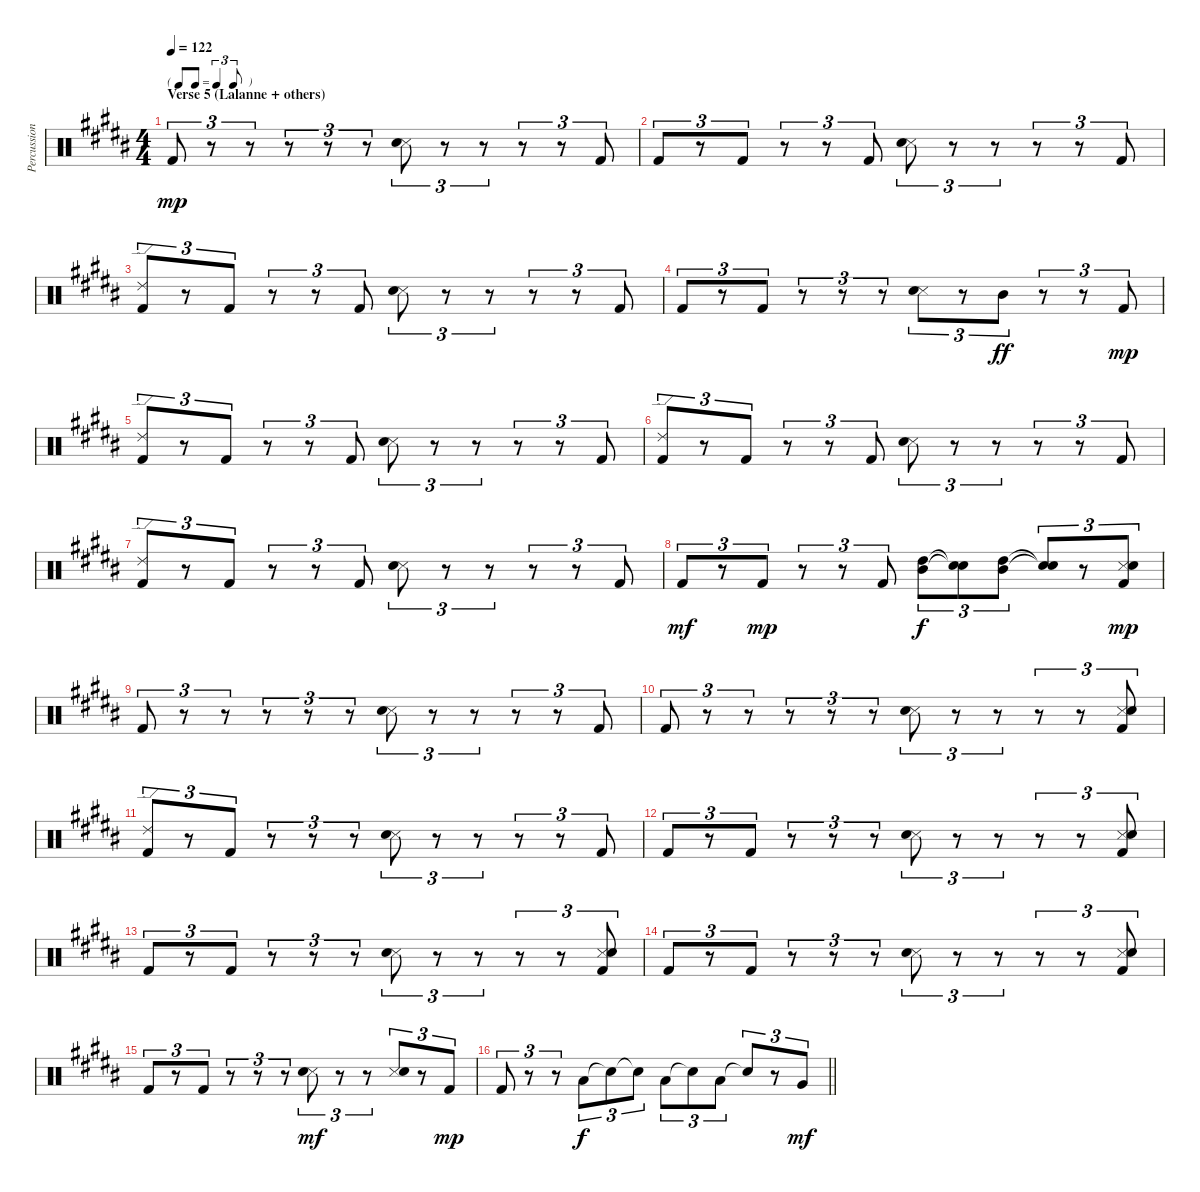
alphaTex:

\track ("Percussion" "Percussion") {instrument percussion}
\staff {score}
\articulation defaults
\ts (4 4)
\tf triplet8th
\section ("" "Verse 5 (Lalanne + others)")
\tempo 122
\clef neutral
\ks g#minor "Kick (hit) 2".8{tu (3 2) dy mp}
r.8{tu (3 2)} r.8{tu (3 2)} r.8{tu (3 2)} r.8{tu (3 2)} r.8{tu (3 2)} ("Snare (side stick) 3" "Snare (hit) 2").8{tu (3 2)} r.8{tu (3 2)} r.8{tu (3 2)} r.8{tu (3 2)} r.8{tu (3 2)} "Kick (hit) 2".8{tu (3 2)} |
"Kick (hit) 2".8{tu (3 2)} r.8{tu (3 2)} "Kick (hit) 2".8{tu (3 2)} r.8{tu (3 2)} r.8{tu (3 2)} "Kick (hit) 2".8{tu (3 2)} ("Snare (side stick) 3" "Snare (hit) 2").8{tu (3 2)} r.8{tu (3 2)} r.8{tu (3 2)} r.8{tu (3 2)} r.8{tu (3 2)} "Kick (hit) 2".8{tu (3 2)} |
("Ride (edge) 2" "Kick (hit) 2").8{tu (3 2)} r.8{tu (3 2)} "Kick (hit) 2".8{tu (3 2)} r.8{tu (3 2)} r.8{tu (3 2)} "Kick (hit) 2".8{tu (3 2)} ("Snare (side stick) 3" "Snare (hit) 2").8{tu (3 2)} r.8{tu (3 2)} r.8{tu (3 2)} r.8{tu (3 2)} r.8{tu (3 2)} "Kick (hit) 2".8{tu (3 2)} |
"Kick (hit) 2".8{tu (3 2)} r.8{tu (3 2)} "Kick (hit) 2".8{tu (3 2)} r.8{tu (3 2)} r.8{tu (3 2)} r.8{tu (3 2)} ("Snare (side stick) 3" "Snare (hit) 2").8{tu (3 2)} r.8{tu (3 2)} "Mid Tom (hit)".8{tu (3 2) dy ff} r.8{tu (3 2)} r.8{tu (3 2)} "Kick (hit) 2".8{tu (3 2) dy mp} |
("Ride (edge) 2" "Kick (hit) 2").8{tu (3 2)} r.8{tu (3 2)} "Kick (hit) 2".8{tu (3 2)} r.8{tu (3 2)} r.8{tu (3 2)} "Kick (hit) 2".8{tu (3 2)} ("Snare (side stick) 3" "Snare (hit) 2").8{tu (3 2)} r.8{tu (3 2)} r.8{tu (3 2)} r.8{tu (3 2)} r.8{tu (3 2)} "Kick (hit) 2".8{tu (3 2)} |
("Ride (edge) 2" "Kick (hit) 2").8{tu (3 2)} r.8{tu (3 2)} "Kick (hit) 2".8{tu (3 2)} r.8{tu (3 2)} r.8{tu (3 2)} "Kick (hit) 2".8{tu (3 2)} ("Snare (side stick) 3" "Snare (hit) 2").8{tu (3 2)} r.8{tu (3 2)} r.8{tu (3 2)} r.8{tu (3 2)} r.8{tu (3 2)} "Kick (hit) 2".8{tu (3 2)} |
("Ride (edge) 2" "Kick (hit) 2").8{tu (3 2)} r.8{tu (3 2)} "Kick (hit) 2".8{tu (3 2)} r.8{tu (3 2)} r.8{tu (3 2)} "Kick (hit) 2".8{tu (3 2)} ("Snare (side stick) 3" "Snare (hit) 2").8{tu (3 2)} r.8{tu (3 2)} r.8{tu (3 2)} r.8{tu (3 2)} r.8{tu (3 2)} "Kick (hit) 2".8{tu (3 2)} |
"Kick (hit) 2".8{tu (3 2) dy mf} r.8{tu (3 2)} "Kick (hit) 2".8{tu (3 2) dy mp} r.8{tu (3 2)} r.8{tu (3 2)} "Kick (hit) 2".8{tu (3 2)} ("High Tom (hit)" "Mid Tom (hit)").8{tu (3 2) dy f} ("Snare (hit)"{t} "Snare (hit)"{t}).8{tu (3 2)} ("High Tom (hit)" "Mid Tom (hit)").8{tu (3 2)} ("Snare (hit)"{t} "Snare (hit)"{t}).8{tu (3 2)} r.8{tu (3 2)} ("Snare (side stick) 3" "Snare (hit) 2" "Kick (hit) 2").8{tu (3 2) dy mp} |
"Kick (hit) 2".8{tu (3 2)} r.8{tu (3 2)} r.8{tu (3 2)} r.8{tu (3 2)} r.8{tu (3 2)} r.8{tu (3 2)} ("Snare (side stick) 3" "Snare (hit) 2").8{tu (3 2)} r.8{tu (3 2)} r.8{tu (3 2)} r.8{tu (3 2)} r.8{tu (3 2)} "Kick (hit) 2".8{tu (3 2)} |
"Kick (hit) 2".8{tu (3 2)} r.8{tu (3 2)} r.8{tu (3 2)} r.8{tu (3 2)} r.8{tu (3 2)} r.8{tu (3 2)} ("Snare (side stick) 3" "Snare (hit) 2").8{tu (3 2)} r.8{tu (3 2)} r.8{tu (3 2)} r.8{tu (3 2)} r.8{tu (3 2)} ("Snare (side stick) 3" "Snare (hit) 2" "Kick (hit) 2").8{tu (3 2)} |
("Ride (edge) 2" "Kick (hit) 2").8{tu (3 2)} r.8{tu (3 2)} "Kick (hit) 2".8{tu (3 2)} r.8{tu (3 2)} r.8{tu (3 2)} r.8{tu (3 2)} ("Snare (side stick) 3" "Snare (hit) 2").8{tu (3 2)} r.8{tu (3 2)} r.8{tu (3 2)} r.8{tu (3 2)} r.8{tu (3 2)} "Kick (hit) 2".8{tu (3 2)} |
"Kick (hit) 2".8{tu (3 2)} r.8{tu (3 2)} "Kick (hit) 2".8{tu (3 2)} r.8{tu (3 2)} r.8{tu (3 2)} r.8{tu (3 2)} ("Snare (side stick) 3" "Snare (hit) 2").8{tu (3 2)} r.8{tu (3 2)} r.8{tu (3 2)} r.8{tu (3 2)} r.8{tu (3 2)} ("Snare (side stick) 3" "Snare (hit) 2" "Kick (hit) 2").8{tu (3 2)} |
"Kick (hit) 2".8{tu (3 2)} r.8{tu (3 2)} "Kick (hit) 2".8{tu (3 2)} r.8{tu (3 2)} r.8{tu (3 2)} r.8{tu (3 2)} ("Snare (side stick) 3" "Snare (hit) 2").8{tu (3 2)} r.8{tu (3 2)} r.8{tu (3 2)} r.8{tu (3 2)} r.8{tu (3 2)} ("Snare (side stick) 3" "Snare (hit) 2" "Kick (hit) 2").8{tu (3 2)} |
"Kick (hit) 2".8{tu (3 2)} r.8{tu (3 2)} "Kick (hit) 2".8{tu (3 2)} r.8{tu (3 2)} r.8{tu (3 2)} r.8{tu (3 2)} ("Snare (side stick) 3" "Snare (hit) 2").8{tu (3 2)} r.8{tu (3 2)} r.8{tu (3 2)} r.8{tu (3 2)} r.8{tu (3 2)} ("Snare (side stick) 3" "Snare (hit) 2" "Kick (hit) 2").8{tu (3 2)} |
"Kick (hit) 2".8{tu (3 2)} r.8{tu (3 2)} "Kick (hit) 2".8{tu (3 2)} r.8{tu (3 2)} r.8{tu (3 2)} r.8{tu (3 2)} ("Snare (side stick) 3" "Snare (hit) 2").8{tu (3 2) dy mf} r.8{tu (3 2)} r.8{tu (3 2)} ("Snare (side stick) 3" "Snare (hit) 2").8{tu (3 2)} r.8{tu (3 2)} "Kick (hit) 2".8{tu (3 2) dy mp} |
\barLineRight lightlight "Kick (hit) 2".8{tu (3 2)}
r.8{tu (3 2)} r.8{tu (3 2)} "Low Tom (hit)".8{tu (3 2) dy f} "Snare (hit)"{t}.8{tu (3 2)} "Snare (hit)"{t}.8{tu (3 2)} "Low Tom (hit)".8{tu (3 2)} "Snare (hit)"{t}.8{tu (3 2)} "Low Tom (hit)".8{tu (3 2)} "Snare (hit)"{t}.8{tu (3 2)} r.8{tu (3 2)} "Very Low Tom (hit)".8{tu (3 2) dy mf}
